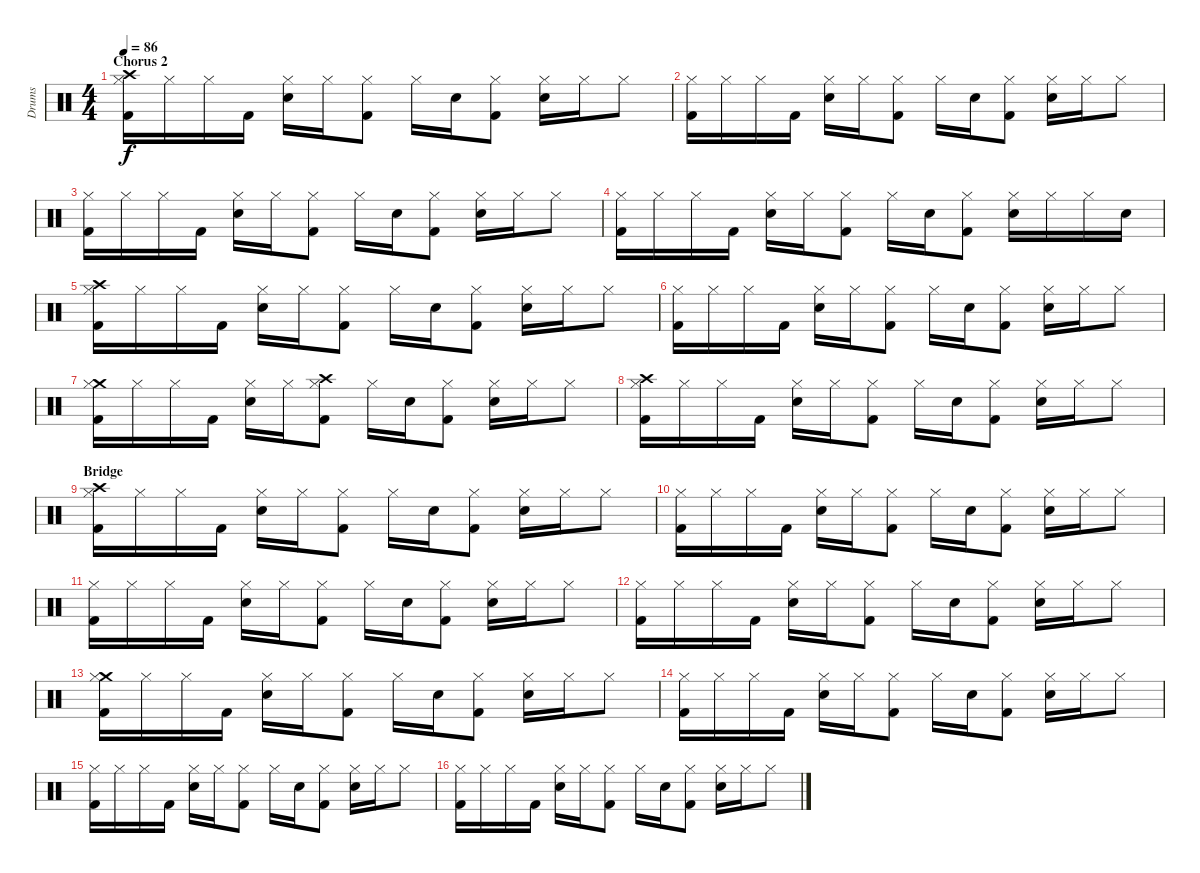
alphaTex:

\track ("Drums" "Drums") {instrument percussion}
\staff {score}
\articulation defaults
\ts (4 4)
\section ("" "Chorus 2")
\tempo 86
\clef neutral
\ks c
("Crash high (hit)" "Hi-Hat (closed)" "Kick (hit) 2").16{dy f} "Hi-Hat (closed)".16 "Hi-Hat (closed)".16 "Kick (hit) 2".16 ("Hi-Hat (closed)" "Electric Snare (hit)").16 "Hi-Hat (closed)".16 ("Hi-Hat (closed)" "Kick (hit) 2").8 "Hi-Hat (closed)".16 "Electric Snare (hit)".16 ("Hi-Hat (closed)" "Kick (hit) 2").8 ("Hi-Hat (closed)" "Electric Snare (hit)").16 "Hi-Hat (closed)".16 "Hi-Hat (closed)".8 |
("Hi-Hat (closed)" "Kick (hit) 2").16 "Hi-Hat (closed)".16 "Hi-Hat (closed)".16 "Kick (hit) 2".16 ("Hi-Hat (closed)" "Electric Snare (hit)").16 "Hi-Hat (closed)".16 ("Hi-Hat (closed)" "Kick (hit) 2").8 "Hi-Hat (closed)".16 "Electric Snare (hit)".16 ("Hi-Hat (closed)" "Kick (hit) 2").8 ("Hi-Hat (closed)" "Electric Snare (hit)").16 "Hi-Hat (closed)".16 "Hi-Hat (closed)".8 |
("Hi-Hat (closed)" "Kick (hit) 2").16 "Hi-Hat (closed)".16 "Hi-Hat (closed)".16 "Kick (hit) 2".16 ("Hi-Hat (closed)" "Electric Snare (hit)").16 "Hi-Hat (closed)".16 ("Hi-Hat (closed)" "Kick (hit) 2").8 "Hi-Hat (closed)".16 "Electric Snare (hit)".16 ("Hi-Hat (closed)" "Kick (hit) 2").8 ("Hi-Hat (closed)" "Electric Snare (hit)").16 "Hi-Hat (closed)".16 "Hi-Hat (closed)".8 |
("Hi-Hat (closed)" "Kick (hit) 2").16 "Hi-Hat (closed)".16 "Hi-Hat (closed)".16 "Kick (hit) 2".16 ("Hi-Hat (closed)" "Electric Snare (hit)").16 "Hi-Hat (closed)".16 ("Hi-Hat (closed)" "Kick (hit) 2").8 "Hi-Hat (closed)".16 "Electric Snare (hit)".16 ("Hi-Hat (closed)" "Kick (hit) 2").8 ("Hi-Hat (closed)" "Electric Snare (hit)").16 "Hi-Hat (closed)".16 "Hi-Hat (closed)".16 "Electric Snare (hit)".16 |
("Crash high (hit)" "Hi-Hat (closed)" "Kick (hit) 2").16 "Hi-Hat (closed)".16 "Hi-Hat (closed)".16 "Kick (hit) 2".16 ("Hi-Hat (closed)" "Electric Snare (hit)").16 "Hi-Hat (closed)".16 ("Hi-Hat (closed)" "Kick (hit) 2").8 "Hi-Hat (closed)".16 "Electric Snare (hit)".16 ("Hi-Hat (closed)" "Kick (hit) 2").8 ("Hi-Hat (closed)" "Electric Snare (hit)").16 "Hi-Hat (closed)".16 "Hi-Hat (closed)".8 |
("Hi-Hat (closed)" "Kick (hit) 2").16 "Hi-Hat (closed)".16 "Hi-Hat (closed)".16 "Kick (hit) 2".16 ("Hi-Hat (closed)" "Electric Snare (hit)").16 "Hi-Hat (closed)".16 ("Hi-Hat (closed)" "Kick (hit) 2").8 "Hi-Hat (closed)".16 "Electric Snare (hit)".16 ("Hi-Hat (closed)" "Kick (hit) 2").8 ("Hi-Hat (closed)" "Electric Snare (hit)").16 "Hi-Hat (closed)".16 "Hi-Hat (closed)".8 |
("Crash medium (hit)" "Hi-Hat (closed)" "Kick (hit) 2").16 "Hi-Hat (closed)".16 "Hi-Hat (closed)".16 "Kick (hit) 2".16 ("Hi-Hat (closed)" "Electric Snare (hit)").16 "Hi-Hat (closed)".16 ("Crash high (hit)" "Hi-Hat (closed)" "Kick (hit) 2").8 "Hi-Hat (closed)".16 "Electric Snare (hit)".16 ("Hi-Hat (closed)" "Kick (hit) 2").8 ("Hi-Hat (closed)" "Electric Snare (hit)").16 "Hi-Hat (closed)".16 "Hi-Hat (closed)".8 |
("Crash high (hit)" "Hi-Hat (closed)" "Kick (hit) 2").16 "Hi-Hat (closed)".16 "Hi-Hat (closed)".16 "Kick (hit) 2".16 ("Hi-Hat (closed)" "Electric Snare (hit)").16 "Hi-Hat (closed)".16 ("Hi-Hat (closed)" "Kick (hit) 2").8 "Hi-Hat (closed)".16 "Electric Snare (hit)".16 ("Hi-Hat (closed)" "Kick (hit) 2").8 ("Hi-Hat (closed)" "Electric Snare (hit)").16 "Hi-Hat (closed)".16 "Hi-Hat (closed)".8 |
\section ("" "Bridge")
("Crash high (hit)" "Hi-Hat (closed)" "Kick (hit) 2").16 "Hi-Hat (closed)".16 "Hi-Hat (closed)".16 "Kick (hit) 2".16 ("Hi-Hat (closed)" "Electric Snare (hit)").16 "Hi-Hat (closed)".16 ("Hi-Hat (closed)" "Kick (hit) 2").8 "Hi-Hat (closed)".16 "Electric Snare (hit)".16 ("Hi-Hat (closed)" "Kick (hit) 2").8 ("Hi-Hat (closed)" "Electric Snare (hit)").16 "Hi-Hat (closed)".16 "Hi-Hat (closed)".8 |
("Hi-Hat (closed)" "Kick (hit) 2").16 "Hi-Hat (closed)".16 "Hi-Hat (closed)".16 "Kick (hit) 2".16 ("Hi-Hat (closed)" "Electric Snare (hit)").16 "Hi-Hat (closed)".16 ("Hi-Hat (closed)" "Kick (hit) 2").8 "Hi-Hat (closed)".16 "Electric Snare (hit)".16 ("Hi-Hat (closed)" "Kick (hit) 2").8 ("Hi-Hat (closed)" "Electric Snare (hit)").16 "Hi-Hat (closed)".16 "Hi-Hat (closed)".8 |
("Hi-Hat (closed)" "Kick (hit) 2").16 "Hi-Hat (closed)".16 "Hi-Hat (closed)".16 "Kick (hit) 2".16 ("Hi-Hat (closed)" "Electric Snare (hit)").16 "Hi-Hat (closed)".16 ("Hi-Hat (closed)" "Kick (hit) 2").8 "Hi-Hat (closed)".16 "Electric Snare (hit)".16 ("Hi-Hat (closed)" "Kick (hit) 2").8 ("Hi-Hat (closed)" "Electric Snare (hit)").16 "Hi-Hat (closed)".16 "Hi-Hat (closed)".8 |
("Hi-Hat (closed)" "Kick (hit) 2").16 "Hi-Hat (closed)".16 "Hi-Hat (closed)".16 "Kick (hit) 2".16 ("Hi-Hat (closed)" "Electric Snare (hit)").16 "Hi-Hat (closed)".16 ("Hi-Hat (closed)" "Kick (hit) 2").8 "Hi-Hat (closed)".16 "Electric Snare (hit)".16 ("Hi-Hat (closed)" "Kick (hit) 2").8 ("Hi-Hat (closed)" "Electric Snare (hit)").16 "Hi-Hat (closed)".16 "Hi-Hat (closed)".8 |
("Crash medium (hit)" "Hi-Hat (closed)" "Kick (hit) 2").16 "Hi-Hat (closed)".16 "Hi-Hat (closed)".16 "Kick (hit) 2".16 ("Hi-Hat (closed)" "Electric Snare (hit)").16 "Hi-Hat (closed)".16 ("Hi-Hat (closed)" "Kick (hit) 2").8 "Hi-Hat (closed)".16 "Electric Snare (hit)".16 ("Hi-Hat (closed)" "Kick (hit) 2").8 ("Hi-Hat (closed)" "Electric Snare (hit)").16 "Hi-Hat (closed)".16 "Hi-Hat (closed)".8 |
("Hi-Hat (closed)" "Kick (hit) 2").16 "Hi-Hat (closed)".16 "Hi-Hat (closed)".16 "Kick (hit) 2".16 ("Hi-Hat (closed)" "Electric Snare (hit)").16 "Hi-Hat (closed)".16 ("Hi-Hat (closed)" "Kick (hit) 2").8 "Hi-Hat (closed)".16 "Electric Snare (hit)".16 ("Hi-Hat (closed)" "Kick (hit) 2").8 ("Hi-Hat (closed)" "Electric Snare (hit)").16 "Hi-Hat (closed)".16 "Hi-Hat (closed)".8 |
("Hi-Hat (closed)" "Kick (hit) 2").16 "Hi-Hat (closed)".16 "Hi-Hat (closed)".16 "Kick (hit) 2".16 ("Hi-Hat (closed)" "Electric Snare (hit)").16 "Hi-Hat (closed)".16 ("Hi-Hat (closed)" "Kick (hit) 2").8 "Hi-Hat (closed)".16 "Electric Snare (hit)".16 ("Hi-Hat (closed)" "Kick (hit) 2").8 ("Hi-Hat (closed)" "Electric Snare (hit)").16 "Hi-Hat (closed)".16 "Hi-Hat (closed)".8 |
("Hi-Hat (closed)" "Kick (hit) 2").16 "Hi-Hat (closed)".16 "Hi-Hat (closed)".16 "Kick (hit) 2".16 ("Hi-Hat (closed)" "Electric Snare (hit)").16 "Hi-Hat (closed)".16 ("Hi-Hat (closed)" "Kick (hit) 2").8 "Hi-Hat (closed)".16 "Electric Snare (hit)".16 ("Hi-Hat (closed)" "Kick (hit) 2").8 ("Hi-Hat (closed)" "Electric Snare (hit)").16 "Hi-Hat (closed)".16 "Hi-Hat (closed)".8
